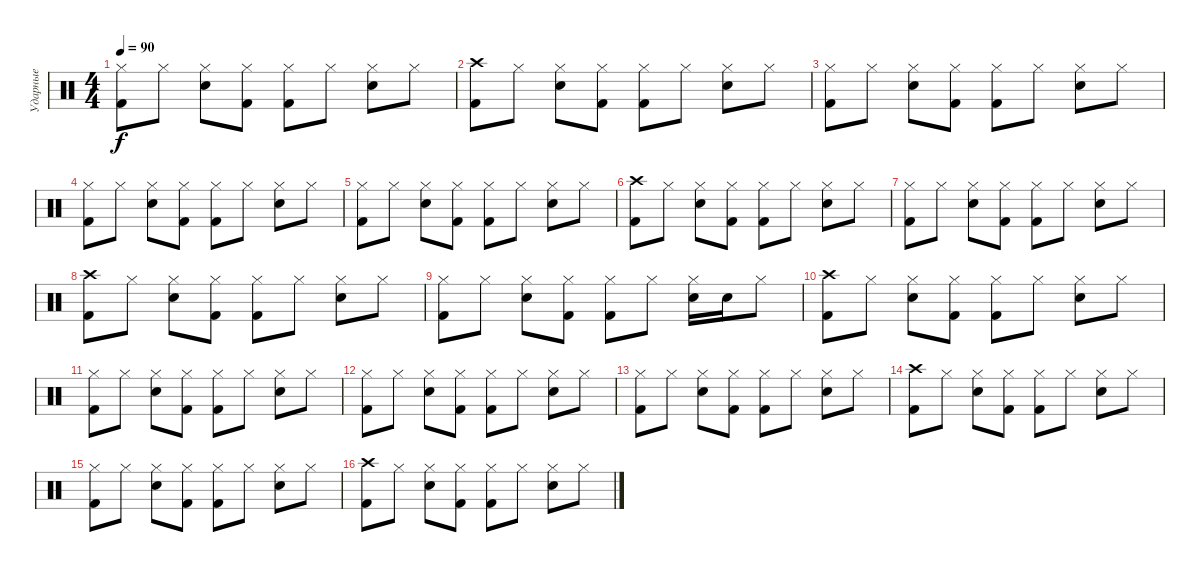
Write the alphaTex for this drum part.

\track ("Ударные" "Ударные") {instrument percussion}
\staff {score}
\articulation defaults
\ts (4 4)
\tempo 90
\clef neutral
\ks c
("Hi-Hat (closed)" "Kick (hit) 2").8{dy f} "Hi-Hat (closed)".8 ("Hi-Hat (closed)" "Snare (hit) 2").8 ("Hi-Hat (closed)" "Kick (hit) 2").8 ("Hi-Hat (closed)" "Kick (hit) 2").8 "Hi-Hat (closed)".8 ("Hi-Hat (closed)" "Snare (hit) 2").8 "Hi-Hat (closed)".8 |
("Crash high (hit)" "Kick (hit) 2").8 "Hi-Hat (closed)".8 ("Hi-Hat (closed)" "Snare (hit) 2").8 ("Hi-Hat (closed)" "Kick (hit) 2").8 ("Hi-Hat (closed)" "Kick (hit) 2").8 "Hi-Hat (closed)".8 ("Hi-Hat (closed)" "Snare (hit) 2").8 "Hi-Hat (closed)".8 |
("Hi-Hat (closed)" "Kick (hit) 2").8 "Hi-Hat (closed)".8 ("Hi-Hat (closed)" "Snare (hit) 2").8 ("Hi-Hat (closed)" "Kick (hit) 2").8 ("Hi-Hat (closed)" "Kick (hit) 2").8 "Hi-Hat (closed)".8 ("Hi-Hat (closed)" "Snare (hit) 2").8 "Hi-Hat (closed)".8 |
("Hi-Hat (closed)" "Kick (hit) 2").8 "Hi-Hat (closed)".8 ("Hi-Hat (closed)" "Snare (hit) 2").8 ("Hi-Hat (closed)" "Kick (hit) 2").8 ("Hi-Hat (closed)" "Kick (hit) 2").8 "Hi-Hat (closed)".8 ("Hi-Hat (closed)" "Snare (hit) 2").8 "Hi-Hat (closed)".8 |
("Hi-Hat (closed)" "Kick (hit) 2").8 "Hi-Hat (closed)".8 ("Hi-Hat (closed)" "Snare (hit) 2").8 ("Hi-Hat (closed)" "Kick (hit) 2").8 ("Hi-Hat (closed)" "Kick (hit) 2").8 "Hi-Hat (closed)".8 ("Hi-Hat (closed)" "Snare (hit) 2").8 "Hi-Hat (closed)".8 |
("Crash high (hit)" "Kick (hit) 2").8 "Hi-Hat (closed)".8 ("Hi-Hat (closed)" "Snare (hit) 2").8 ("Hi-Hat (closed)" "Kick (hit) 2").8 ("Hi-Hat (closed)" "Kick (hit) 2").8 "Hi-Hat (closed)".8 ("Hi-Hat (closed)" "Snare (hit) 2").8 "Hi-Hat (closed)".8 |
("Hi-Hat (closed)" "Kick (hit) 2").8 "Hi-Hat (closed)".8 ("Hi-Hat (closed)" "Snare (hit) 2").8 ("Hi-Hat (closed)" "Kick (hit) 2").8 ("Hi-Hat (closed)" "Kick (hit) 2").8 "Hi-Hat (closed)".8 ("Hi-Hat (closed)" "Snare (hit) 2").8 "Hi-Hat (closed)".8 |
("Crash high (hit)" "Kick (hit) 2").8 "Hi-Hat (closed)".8 ("Hi-Hat (closed)" "Snare (hit) 2").8 ("Hi-Hat (closed)" "Kick (hit) 2").8 ("Hi-Hat (closed)" "Kick (hit) 2").8 "Hi-Hat (closed)".8 ("Hi-Hat (closed)" "Snare (hit) 2").8 "Hi-Hat (closed)".8 |
("Hi-Hat (closed)" "Kick (hit) 2").8 "Hi-Hat (closed)".8 ("Hi-Hat (closed)" "Snare (hit) 2").8 ("Hi-Hat (closed)" "Kick (hit) 2").8 ("Hi-Hat (closed)" "Kick (hit) 2").8 "Hi-Hat (closed)".8 ("Hi-Hat (closed)" "Snare (hit) 2").16 "Snare (hit) 2".16 "Hi-Hat (closed)".8 |
("Crash high (hit)" "Kick (hit) 2").8 "Hi-Hat (closed)".8 ("Hi-Hat (closed)" "Snare (hit) 2").8 ("Hi-Hat (closed)" "Kick (hit) 2").8 ("Hi-Hat (closed)" "Kick (hit) 2").8 "Hi-Hat (closed)".8 ("Hi-Hat (closed)" "Snare (hit) 2").8 "Hi-Hat (closed)".8 |
("Hi-Hat (closed)" "Kick (hit) 2").8 "Hi-Hat (closed)".8 ("Hi-Hat (closed)" "Snare (hit) 2").8 ("Hi-Hat (closed)" "Kick (hit) 2").8 ("Hi-Hat (closed)" "Kick (hit) 2").8 "Hi-Hat (closed)".8 ("Hi-Hat (closed)" "Snare (hit) 2").8 "Hi-Hat (closed)".8 |
("Hi-Hat (closed)" "Kick (hit) 2").8 "Hi-Hat (closed)".8 ("Hi-Hat (closed)" "Snare (hit) 2").8 ("Hi-Hat (closed)" "Kick (hit) 2").8 ("Hi-Hat (closed)" "Kick (hit) 2").8 "Hi-Hat (closed)".8 ("Hi-Hat (closed)" "Snare (hit) 2").8 "Hi-Hat (closed)".8 |
("Hi-Hat (closed)" "Kick (hit) 2").8 "Hi-Hat (closed)".8 ("Hi-Hat (closed)" "Snare (hit) 2").8 ("Hi-Hat (closed)" "Kick (hit) 2").8 ("Hi-Hat (closed)" "Kick (hit) 2").8 "Hi-Hat (closed)".8 ("Hi-Hat (closed)" "Snare (hit) 2").8 "Hi-Hat (closed)".8 |
("Crash high (hit)" "Kick (hit) 2").8 "Hi-Hat (closed)".8 ("Hi-Hat (closed)" "Snare (hit) 2").8 ("Hi-Hat (closed)" "Kick (hit) 2").8 ("Hi-Hat (closed)" "Kick (hit) 2").8 "Hi-Hat (closed)".8 ("Hi-Hat (closed)" "Snare (hit) 2").8 "Hi-Hat (closed)".8 |
("Hi-Hat (closed)" "Kick (hit) 2").8 "Hi-Hat (closed)".8 ("Hi-Hat (closed)" "Snare (hit) 2").8 ("Hi-Hat (closed)" "Kick (hit) 2").8 ("Hi-Hat (closed)" "Kick (hit) 2").8 "Hi-Hat (closed)".8 ("Hi-Hat (closed)" "Snare (hit) 2").8 "Hi-Hat (closed)".8 |
("Crash high (hit)" "Kick (hit) 2").8 "Hi-Hat (closed)".8 ("Hi-Hat (closed)" "Snare (hit) 2").8 ("Hi-Hat (closed)" "Kick (hit) 2").8 ("Hi-Hat (closed)" "Kick (hit) 2").8 "Hi-Hat (closed)".8 ("Hi-Hat (closed)" "Snare (hit) 2").8 "Hi-Hat (closed)".8
